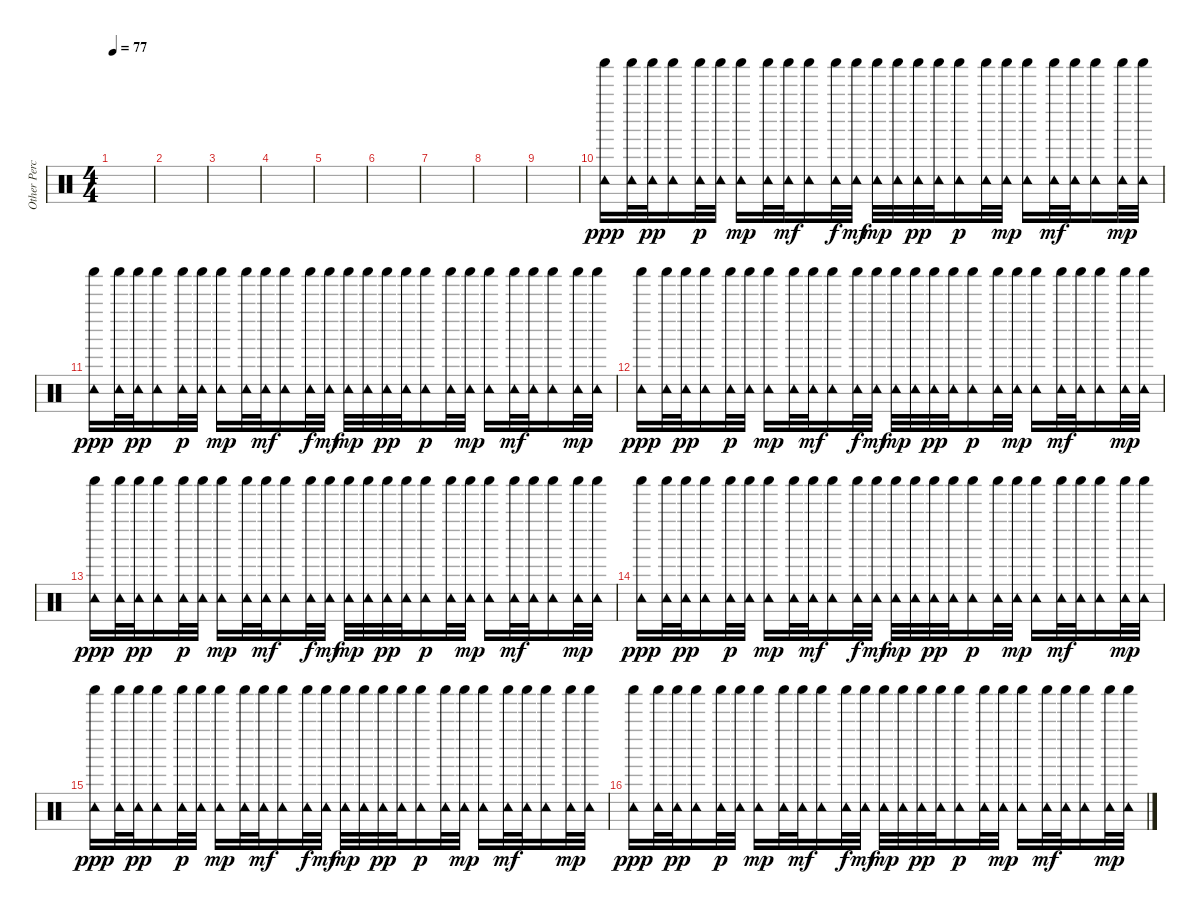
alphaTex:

\track ("Other Percussion" "Other Perc") {instrument percussion}
\staff {score}
\articulation defaults
\ts (4 4)
\tempo 77
\clef neutral
\ks c
|
|
|
|
|
|
|
|
|
("Shaker (hit)" "Tambourine (hit)").16{dy ppp} ("Shaker (hit)" "Tambourine (hit)").32 ("Shaker (hit)" "Tambourine (hit)").32{dy pp} ("Shaker (hit)" "Tambourine (hit)").16 ("Shaker (hit)" "Tambourine (hit)").32{dy p} ("Shaker (hit)" "Tambourine (hit)").32 ("Shaker (hit)" "Tambourine (hit)").16{dy mp} ("Shaker (hit)" "Tambourine (hit)").32 ("Shaker (hit)" "Tambourine (hit)").32{dy mf} ("Shaker (hit)" "Tambourine (hit)").16 ("Shaker (hit)" "Tambourine (hit)").32{dy f} ("Shaker (hit)" "Tambourine (hit)").32{dy mf} ("Shaker (hit)" "Tambourine (hit)").32{dy mp} ("Shaker (hit)" "Tambourine (hit)").32 ("Shaker (hit)" "Tambourine (hit)").32{dy pp} ("Shaker (hit)" "Tambourine (hit)").32 ("Shaker (hit)" "Tambourine (hit)").16{dy p} ("Shaker (hit)" "Tambourine (hit)").32 ("Shaker (hit)" "Tambourine (hit)").32{dy mp} ("Shaker (hit)" "Tambourine (hit)").16 ("Shaker (hit)" "Tambourine (hit)").32{dy mf} ("Shaker (hit)" "Tambourine (hit)").32 ("Shaker (hit)" "Tambourine (hit)").16 ("Shaker (hit)" "Tambourine (hit)").32{dy mp} ("Shaker (hit)" "Tambourine (hit)").32 |
("Shaker (hit)" "Tambourine (hit)").16{dy ppp} ("Shaker (hit)" "Tambourine (hit)").32 ("Shaker (hit)" "Tambourine (hit)").32{dy pp} ("Shaker (hit)" "Tambourine (hit)").16 ("Shaker (hit)" "Tambourine (hit)").32{dy p} ("Shaker (hit)" "Tambourine (hit)").32 ("Shaker (hit)" "Tambourine (hit)").16{dy mp} ("Shaker (hit)" "Tambourine (hit)").32 ("Shaker (hit)" "Tambourine (hit)").32{dy mf} ("Shaker (hit)" "Tambourine (hit)").16 ("Shaker (hit)" "Tambourine (hit)").32{dy f} ("Shaker (hit)" "Tambourine (hit)").32{dy mf} ("Shaker (hit)" "Tambourine (hit)").32{dy mp} ("Shaker (hit)" "Tambourine (hit)").32 ("Shaker (hit)" "Tambourine (hit)").32{dy pp} ("Shaker (hit)" "Tambourine (hit)").32 ("Shaker (hit)" "Tambourine (hit)").16{dy p} ("Shaker (hit)" "Tambourine (hit)").32 ("Shaker (hit)" "Tambourine (hit)").32{dy mp} ("Shaker (hit)" "Tambourine (hit)").16 ("Shaker (hit)" "Tambourine (hit)").32{dy mf} ("Shaker (hit)" "Tambourine (hit)").32 ("Shaker (hit)" "Tambourine (hit)").16 ("Shaker (hit)" "Tambourine (hit)").32{dy mp} ("Shaker (hit)" "Tambourine (hit)").32 |
("Shaker (hit)" "Tambourine (hit)").16{dy ppp} ("Shaker (hit)" "Tambourine (hit)").32 ("Shaker (hit)" "Tambourine (hit)").32{dy pp} ("Shaker (hit)" "Tambourine (hit)").16 ("Shaker (hit)" "Tambourine (hit)").32{dy p} ("Shaker (hit)" "Tambourine (hit)").32 ("Shaker (hit)" "Tambourine (hit)").16{dy mp} ("Shaker (hit)" "Tambourine (hit)").32 ("Shaker (hit)" "Tambourine (hit)").32{dy mf} ("Shaker (hit)" "Tambourine (hit)").16 ("Shaker (hit)" "Tambourine (hit)").32{dy f} ("Shaker (hit)" "Tambourine (hit)").32{dy mf} ("Shaker (hit)" "Tambourine (hit)").32{dy mp} ("Shaker (hit)" "Tambourine (hit)").32 ("Shaker (hit)" "Tambourine (hit)").32{dy pp} ("Shaker (hit)" "Tambourine (hit)").32 ("Shaker (hit)" "Tambourine (hit)").16{dy p} ("Shaker (hit)" "Tambourine (hit)").32 ("Shaker (hit)" "Tambourine (hit)").32{dy mp} ("Shaker (hit)" "Tambourine (hit)").16 ("Shaker (hit)" "Tambourine (hit)").32{dy mf} ("Shaker (hit)" "Tambourine (hit)").32 ("Shaker (hit)" "Tambourine (hit)").16 ("Shaker (hit)" "Tambourine (hit)").32{dy mp} ("Shaker (hit)" "Tambourine (hit)").32 |
("Shaker (hit)" "Tambourine (hit)").16{dy ppp} ("Shaker (hit)" "Tambourine (hit)").32 ("Shaker (hit)" "Tambourine (hit)").32{dy pp} ("Shaker (hit)" "Tambourine (hit)").16 ("Shaker (hit)" "Tambourine (hit)").32{dy p} ("Shaker (hit)" "Tambourine (hit)").32 ("Shaker (hit)" "Tambourine (hit)").16{dy mp} ("Shaker (hit)" "Tambourine (hit)").32 ("Shaker (hit)" "Tambourine (hit)").32{dy mf} ("Shaker (hit)" "Tambourine (hit)").16 ("Shaker (hit)" "Tambourine (hit)").32{dy f} ("Shaker (hit)" "Tambourine (hit)").32{dy mf} ("Shaker (hit)" "Tambourine (hit)").32{dy mp} ("Shaker (hit)" "Tambourine (hit)").32 ("Shaker (hit)" "Tambourine (hit)").32{dy pp} ("Shaker (hit)" "Tambourine (hit)").32 ("Shaker (hit)" "Tambourine (hit)").16{dy p} ("Shaker (hit)" "Tambourine (hit)").32 ("Shaker (hit)" "Tambourine (hit)").32{dy mp} ("Shaker (hit)" "Tambourine (hit)").16 ("Shaker (hit)" "Tambourine (hit)").32{dy mf} ("Shaker (hit)" "Tambourine (hit)").32 ("Shaker (hit)" "Tambourine (hit)").16 ("Shaker (hit)" "Tambourine (hit)").32{dy mp} ("Shaker (hit)" "Tambourine (hit)").32 |
("Shaker (hit)" "Tambourine (hit)").16{dy ppp} ("Shaker (hit)" "Tambourine (hit)").32 ("Shaker (hit)" "Tambourine (hit)").32{dy pp} ("Shaker (hit)" "Tambourine (hit)").16 ("Shaker (hit)" "Tambourine (hit)").32{dy p} ("Shaker (hit)" "Tambourine (hit)").32 ("Shaker (hit)" "Tambourine (hit)").16{dy mp} ("Shaker (hit)" "Tambourine (hit)").32 ("Shaker (hit)" "Tambourine (hit)").32{dy mf} ("Shaker (hit)" "Tambourine (hit)").16 ("Shaker (hit)" "Tambourine (hit)").32{dy f} ("Shaker (hit)" "Tambourine (hit)").32{dy mf} ("Shaker (hit)" "Tambourine (hit)").32{dy mp} ("Shaker (hit)" "Tambourine (hit)").32 ("Shaker (hit)" "Tambourine (hit)").32{dy pp} ("Shaker (hit)" "Tambourine (hit)").32 ("Shaker (hit)" "Tambourine (hit)").16{dy p} ("Shaker (hit)" "Tambourine (hit)").32 ("Shaker (hit)" "Tambourine (hit)").32{dy mp} ("Shaker (hit)" "Tambourine (hit)").16 ("Shaker (hit)" "Tambourine (hit)").32{dy mf} ("Shaker (hit)" "Tambourine (hit)").32 ("Shaker (hit)" "Tambourine (hit)").16 ("Shaker (hit)" "Tambourine (hit)").32{dy mp} ("Shaker (hit)" "Tambourine (hit)").32 |
("Shaker (hit)" "Tambourine (hit)").16{dy ppp} ("Shaker (hit)" "Tambourine (hit)").32 ("Shaker (hit)" "Tambourine (hit)").32{dy pp} ("Shaker (hit)" "Tambourine (hit)").16 ("Shaker (hit)" "Tambourine (hit)").32{dy p} ("Shaker (hit)" "Tambourine (hit)").32 ("Shaker (hit)" "Tambourine (hit)").16{dy mp} ("Shaker (hit)" "Tambourine (hit)").32 ("Shaker (hit)" "Tambourine (hit)").32{dy mf} ("Shaker (hit)" "Tambourine (hit)").16 ("Shaker (hit)" "Tambourine (hit)").32{dy f} ("Shaker (hit)" "Tambourine (hit)").32{dy mf} ("Shaker (hit)" "Tambourine (hit)").32{dy mp} ("Shaker (hit)" "Tambourine (hit)").32 ("Shaker (hit)" "Tambourine (hit)").32{dy pp} ("Shaker (hit)" "Tambourine (hit)").32 ("Shaker (hit)" "Tambourine (hit)").16{dy p} ("Shaker (hit)" "Tambourine (hit)").32 ("Shaker (hit)" "Tambourine (hit)").32{dy mp} ("Shaker (hit)" "Tambourine (hit)").16 ("Shaker (hit)" "Tambourine (hit)").32{dy mf} ("Shaker (hit)" "Tambourine (hit)").32 ("Shaker (hit)" "Tambourine (hit)").16 ("Shaker (hit)" "Tambourine (hit)").32{dy mp} ("Shaker (hit)" "Tambourine (hit)").32 |
("Shaker (hit)" "Tambourine (hit)").16{dy ppp} ("Shaker (hit)" "Tambourine (hit)").32 ("Shaker (hit)" "Tambourine (hit)").32{dy pp} ("Shaker (hit)" "Tambourine (hit)").16 ("Shaker (hit)" "Tambourine (hit)").32{dy p} ("Shaker (hit)" "Tambourine (hit)").32 ("Shaker (hit)" "Tambourine (hit)").16{dy mp} ("Shaker (hit)" "Tambourine (hit)").32 ("Shaker (hit)" "Tambourine (hit)").32{dy mf} ("Shaker (hit)" "Tambourine (hit)").16 ("Shaker (hit)" "Tambourine (hit)").32{dy f} ("Shaker (hit)" "Tambourine (hit)").32{dy mf} ("Shaker (hit)" "Tambourine (hit)").32{dy mp} ("Shaker (hit)" "Tambourine (hit)").32 ("Shaker (hit)" "Tambourine (hit)").32{dy pp} ("Shaker (hit)" "Tambourine (hit)").32 ("Shaker (hit)" "Tambourine (hit)").16{dy p} ("Shaker (hit)" "Tambourine (hit)").32 ("Shaker (hit)" "Tambourine (hit)").32{dy mp} ("Shaker (hit)" "Tambourine (hit)").16 ("Shaker (hit)" "Tambourine (hit)").32{dy mf} ("Shaker (hit)" "Tambourine (hit)").32 ("Shaker (hit)" "Tambourine (hit)").16 ("Shaker (hit)" "Tambourine (hit)").32{dy mp} ("Shaker (hit)" "Tambourine (hit)").32
